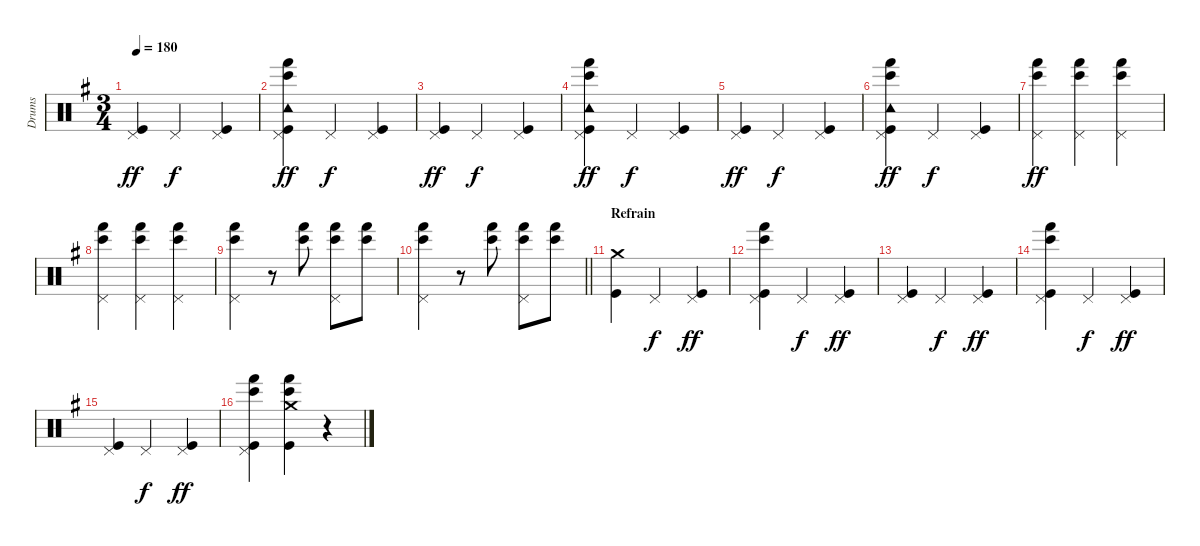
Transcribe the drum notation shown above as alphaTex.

\track ("Drums" "Drums") {instrument percussion bank 24}
\staff {score}
\articulation defaults
\ts (3 4)
\tempo 180
\clef neutral
\ks eminor
("Pedal Hi-Hat (hit)" "Kick (hit)").4{dy ff} "Pedal Hi-Hat (hit)".4{dy f} ("Pedal Hi-Hat (hit)" "Kick (hit)").4 |
("Pedal Hi-Hat (hit)" "Tambourine (hit)" "Bongo High (hit)" "Hand (hit)" "Kick (hit)").4{dy ff} "Pedal Hi-Hat (hit)".4{dy f} ("Pedal Hi-Hat (hit)" "Kick (hit)").4 |
("Pedal Hi-Hat (hit)" "Kick (hit)").4{dy ff} "Pedal Hi-Hat (hit)".4{dy f} ("Pedal Hi-Hat (hit)" "Kick (hit)").4 |
("Pedal Hi-Hat (hit)" "Tambourine (hit)" "Bongo High (hit)" "Hand (hit)" "Kick (hit)").4{dy ff} "Pedal Hi-Hat (hit)".4{dy f} ("Pedal Hi-Hat (hit)" "Kick (hit)").4 |
("Pedal Hi-Hat (hit)" "Kick (hit)").4{dy ff} "Pedal Hi-Hat (hit)".4{dy f} ("Pedal Hi-Hat (hit)" "Kick (hit)").4 |
("Pedal Hi-Hat (hit)" "Tambourine (hit)" "Bongo High (hit)" "Hand (hit)" "Kick (hit)").4{dy ff} "Pedal Hi-Hat (hit)".4{dy f} ("Pedal Hi-Hat (hit)" "Kick (hit)").4 |
("Pedal Hi-Hat (hit)" "Bongo High (hit)" "Hand (hit)").4{dy ff} ("Pedal Hi-Hat (hit)" "Bongo High (hit)" "Hand (hit)").4 ("Pedal Hi-Hat (hit)" "Bongo High (hit)" "Hand (hit)").4 |
("Pedal Hi-Hat (hit)" "Bongo High (hit)" "Hand (hit)").4 ("Pedal Hi-Hat (hit)" "Bongo High (hit)" "Hand (hit)").4 ("Pedal Hi-Hat (hit)" "Bongo High (hit)" "Hand (hit)").4 |
("Pedal Hi-Hat (hit)" "Bongo High (hit)" "Hand (hit)").4 r.8 ("Bongo High (hit)" "Hand (hit)").8 ("Pedal Hi-Hat (hit)" "Bongo High (hit)" "Hand (hit)").8 ("Bongo High (hit)" "Hand (hit)").8 |
\barLineRight lightlight
("Pedal Hi-Hat (hit)" "Bongo High (hit)" "Hand (hit)").4 r.8 ("Bongo High (hit)" "Hand (hit)").8 ("Pedal Hi-Hat (hit)" "Bongo High (hit)" "Hand (hit)").8 ("Bongo High (hit)" "Hand (hit)").8 |
\section ("" "Refrain")
("Crash medium (hit)" "Kick (hit)").4 "Pedal Hi-Hat (hit)".4{dy f} ("Pedal Hi-Hat (hit)" "Kick (hit)").4{dy ff} |
("Pedal Hi-Hat (hit)" "Bongo High (hit)" "Hand (hit)" "Kick (hit)").4 "Pedal Hi-Hat (hit)".4{dy f} ("Pedal Hi-Hat (hit)" "Kick (hit)").4{dy ff} |
("Pedal Hi-Hat (hit)" "Kick (hit)").4 "Pedal Hi-Hat (hit)".4{dy f} ("Pedal Hi-Hat (hit)" "Kick (hit)").4{dy ff} |
("Pedal Hi-Hat (hit)" "Bongo High (hit)" "Hand (hit)" "Kick (hit)").4 "Pedal Hi-Hat (hit)".4{dy f} ("Pedal Hi-Hat (hit)" "Kick (hit)").4{dy ff} |
("Pedal Hi-Hat (hit)" "Kick (hit)").4 "Pedal Hi-Hat (hit)".4{dy f} ("Pedal Hi-Hat (hit)" "Kick (hit)").4{dy ff} |
("Pedal Hi-Hat (hit)" "Bongo High (hit)" "Hand (hit)" "Kick (hit)").4 ("Crash medium (hit)" "Bongo High (hit)" "Hand (hit)" "Kick (hit)").4 r.4
